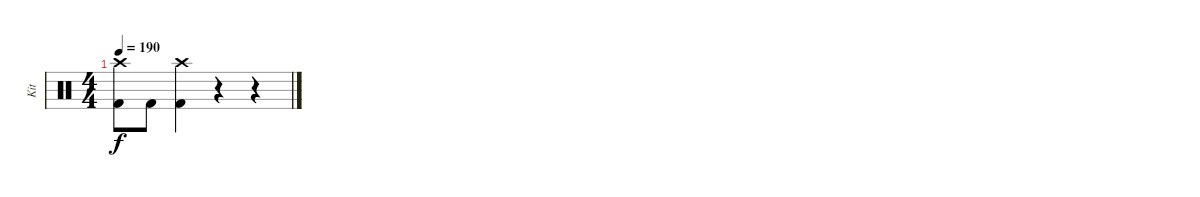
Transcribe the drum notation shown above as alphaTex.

\track ("Kit" "Kit") {instrument percussion}
\staff {score}
\articulation defaults
\ts (4 4)
\tempo 190
\clef neutral
\ks c
("Crash high (hit)" "Kick (hit) 2").8{dy f} "Kick (hit) 2".8 ("Crash high (hit)" "Kick (hit) 2").4 r.4 r.4
